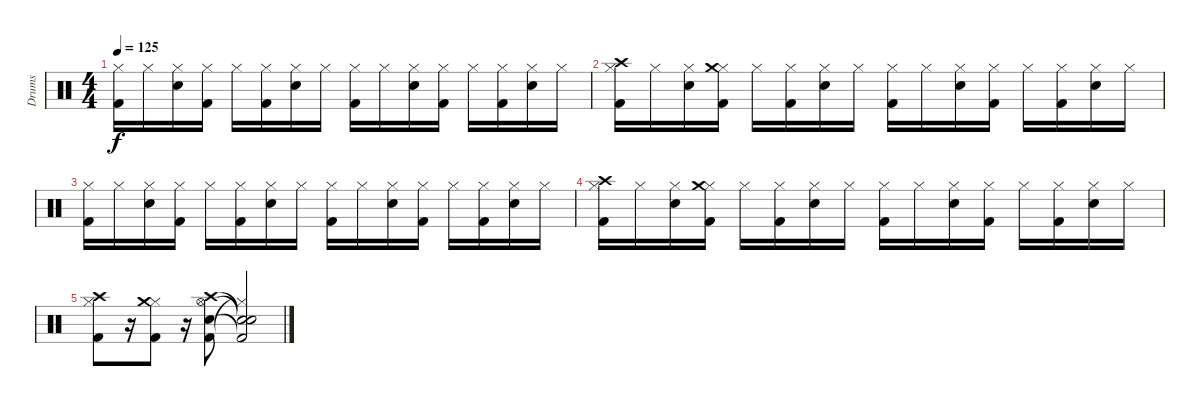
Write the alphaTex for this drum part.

\track ("Drums" "Drums") {instrument percussion}
\staff {score}
\articulation defaults
\ts (4 4)
\tempo 125
\clef neutral
\ks c
("Kick (hit) 2" "Hi-Hat (closed)").16{dy f} "Hi-Hat (closed)".16 ("Snare (hit) 2" "Hi-Hat (closed)").16 ("Kick (hit) 2" "Hi-Hat (closed)").16 "Hi-Hat (closed)".16 ("Kick (hit) 2" "Hi-Hat (closed)").16 ("Snare (hit) 2" "Hi-Hat (closed)").16 "Hi-Hat (closed)".16 ("Kick (hit) 2" "Hi-Hat (closed)").16 "Hi-Hat (closed)".16 ("Snare (hit) 2" "Hi-Hat (closed)").16 ("Kick (hit) 2" "Hi-Hat (closed)").16 "Hi-Hat (closed)".16 ("Kick (hit) 2" "Hi-Hat (closed)").16 ("Snare (hit) 2" "Hi-Hat (closed)").16 "Hi-Hat (closed)".16 |
("Kick (hit) 2" "Hi-Hat (closed)" "Crash high (hit)").16 "Hi-Hat (closed)".16 ("Snare (hit) 2" "Hi-Hat (closed)").16 ("Kick (hit) 2" "Hi-Hat (closed)" "Crash medium (hit)").16 "Hi-Hat (closed)".16 ("Kick (hit) 2" "Hi-Hat (closed)").16 ("Snare (hit) 2" "Hi-Hat (closed)").16 "Hi-Hat (closed)".16 ("Kick (hit) 2" "Hi-Hat (closed)").16 "Hi-Hat (closed)".16 ("Snare (hit) 2" "Hi-Hat (closed)").16 ("Kick (hit) 2" "Hi-Hat (closed)").16 "Hi-Hat (closed)".16 ("Kick (hit) 2" "Hi-Hat (closed)").16 ("Snare (hit) 2" "Hi-Hat (closed)").16 "Hi-Hat (closed)".16 |
("Kick (hit) 2" "Hi-Hat (closed)").16 "Hi-Hat (closed)".16 ("Snare (hit) 2" "Hi-Hat (closed)").16 ("Kick (hit) 2" "Hi-Hat (closed)").16 "Hi-Hat (closed)".16 ("Kick (hit) 2" "Hi-Hat (closed)").16 ("Snare (hit) 2" "Hi-Hat (closed)").16 "Hi-Hat (closed)".16 ("Kick (hit) 2" "Hi-Hat (closed)").16 "Hi-Hat (closed)".16 ("Snare (hit) 2" "Hi-Hat (closed)").16 ("Kick (hit) 2" "Hi-Hat (closed)").16 "Hi-Hat (closed)".16 ("Kick (hit) 2" "Hi-Hat (closed)").16 ("Snare (hit) 2" "Hi-Hat (closed)").16 "Hi-Hat (closed)".16 |
("Kick (hit) 2" "Hi-Hat (closed)" "Crash high (hit)").16 "Hi-Hat (closed)".16 ("Snare (hit) 2" "Hi-Hat (closed)").16 ("Kick (hit) 2" "Hi-Hat (closed)" "Crash medium (hit)").16 "Hi-Hat (closed)".16 ("Kick (hit) 2" "Hi-Hat (closed)").16 ("Snare (hit) 2" "Hi-Hat (closed)").16 "Hi-Hat (closed)".16 ("Kick (hit) 2" "Hi-Hat (closed)").16 "Hi-Hat (closed)".16 ("Snare (hit) 2" "Hi-Hat (closed)").16 ("Kick (hit) 2" "Hi-Hat (closed)").16 "Hi-Hat (closed)".16 ("Kick (hit) 2" "Hi-Hat (closed)").16 ("Snare (hit) 2" "Hi-Hat (closed)").16 "Hi-Hat (closed)".16 |
("Kick (hit) 2" "Hi-Hat (closed)" "Crash high (hit)").8 r.16 ("Kick (hit) 2" "Hi-Hat (closed)" "Crash medium (hit)").8 r.16 ("Snare (hit) 2" "Kick (hit) 2" "Hi-Hat (open)" "Crash high (hit)").8 ("Kick (hit) 2"{t} "Hi-Hat (closed)"{t} "Snare (hit)"{t} "Snare (hit)"{t}).2
